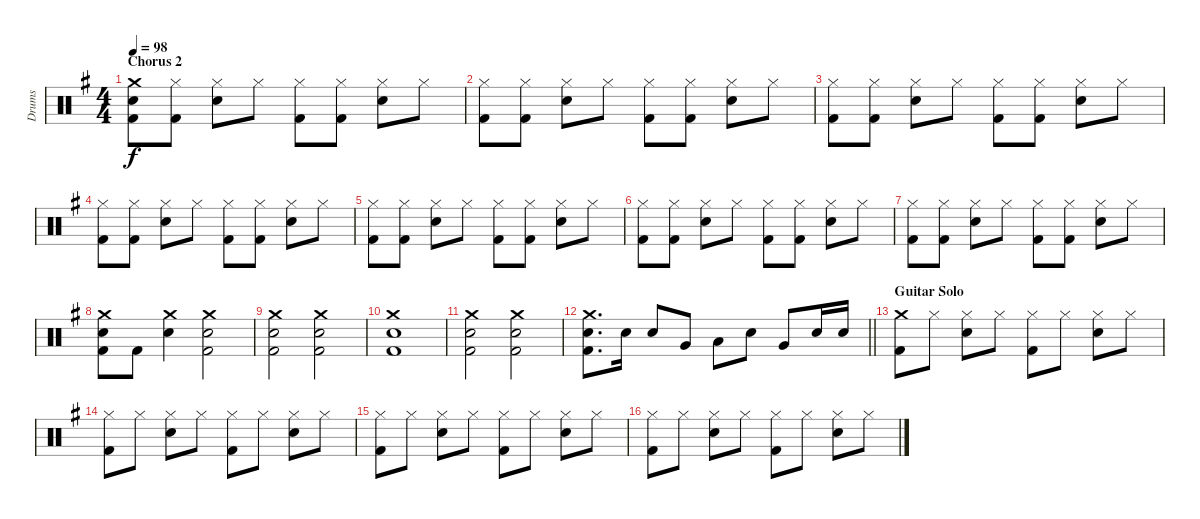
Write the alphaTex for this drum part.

\track ("Drums" "Drums") {instrument percussion}
\staff {score}
\articulation defaults
\ts (4 4)
\section ("" "Chorus 2")
\tempo 98
\clef neutral
\ks g
("Crash medium (hit)" "Electric Snare (hit)" "Kick (hit) 2").8{dy f} ("Hi-Hat (closed)" "Kick (hit) 2").8 ("Hi-Hat (closed)" "Electric Snare (hit)").8 "Hi-Hat (closed)".8 ("Hi-Hat (closed)" "Kick (hit) 2").8 ("Hi-Hat (closed)" "Kick (hit) 2").8 ("Hi-Hat (closed)" "Electric Snare (hit)").8 "Hi-Hat (closed)".8 |
("Hi-Hat (closed)" "Kick (hit) 2").8 ("Hi-Hat (closed)" "Kick (hit) 2").8 ("Hi-Hat (closed)" "Electric Snare (hit)").8 "Hi-Hat (closed)".8 ("Hi-Hat (closed)" "Kick (hit) 2").8 ("Hi-Hat (closed)" "Kick (hit) 2").8 ("Hi-Hat (closed)" "Electric Snare (hit)").8 "Hi-Hat (closed)".8 |
("Hi-Hat (closed)" "Kick (hit) 2").8 ("Hi-Hat (closed)" "Kick (hit) 2").8 ("Hi-Hat (closed)" "Electric Snare (hit)").8 "Hi-Hat (closed)".8 ("Hi-Hat (closed)" "Kick (hit) 2").8 ("Hi-Hat (closed)" "Kick (hit) 2").8 ("Hi-Hat (closed)" "Electric Snare (hit)").8 "Hi-Hat (closed)".8 |
("Hi-Hat (closed)" "Kick (hit) 2").8 ("Hi-Hat (closed)" "Kick (hit) 2").8 ("Hi-Hat (closed)" "Electric Snare (hit)").8 "Hi-Hat (closed)".8 ("Hi-Hat (closed)" "Kick (hit) 2").8 ("Hi-Hat (closed)" "Kick (hit) 2").8 ("Hi-Hat (closed)" "Electric Snare (hit)").8 "Hi-Hat (closed)".8 |
("Hi-Hat (closed)" "Kick (hit) 2").8 ("Hi-Hat (closed)" "Kick (hit) 2").8 ("Hi-Hat (closed)" "Electric Snare (hit)").8 "Hi-Hat (closed)".8 ("Hi-Hat (closed)" "Kick (hit) 2").8 ("Hi-Hat (closed)" "Kick (hit) 2").8 ("Hi-Hat (closed)" "Electric Snare (hit)").8 "Hi-Hat (closed)".8 |
("Hi-Hat (closed)" "Kick (hit) 2").8 ("Hi-Hat (closed)" "Kick (hit) 2").8 ("Hi-Hat (closed)" "Electric Snare (hit)").8 "Hi-Hat (closed)".8 ("Hi-Hat (closed)" "Kick (hit) 2").8 ("Hi-Hat (closed)" "Kick (hit) 2").8 ("Hi-Hat (closed)" "Electric Snare (hit)").8 "Hi-Hat (closed)".8 |
("Hi-Hat (closed)" "Kick (hit) 2").8 ("Hi-Hat (closed)" "Kick (hit) 2").8 ("Hi-Hat (closed)" "Electric Snare (hit)").8 "Hi-Hat (closed)".8 ("Hi-Hat (closed)" "Kick (hit) 2").8 ("Hi-Hat (closed)" "Kick (hit) 2").8 ("Hi-Hat (closed)" "Electric Snare (hit)").8 "Hi-Hat (closed)".8 |
("Crash medium (hit)" "Electric Snare (hit)" "Kick (hit) 2").8 "Kick (hit) 2".8 ("Crash medium (hit)" "Electric Snare (hit)").4 ("Crash medium (hit)" "Electric Snare (hit)" "Kick (hit) 2").2 |
("Crash medium (hit)" "Electric Snare (hit)" "Kick (hit) 2").2 ("Crash medium (hit)" "Electric Snare (hit)" "Kick (hit) 2").2 |
("Crash medium (hit)" "Electric Snare (hit)" "Kick (hit) 2").1 |
("Crash medium (hit)" "Electric Snare (hit)" "Kick (hit) 2").2 ("Crash medium (hit)" "Electric Snare (hit)" "Kick (hit) 2").2 |
\barLineRight lightlight
("Crash medium (hit)" "Electric Snare (hit)" "Kick (hit) 2").8{d} "Electric Snare (hit)".16 "Electric Snare (hit)".8 "Very Low Tom (hit)".8 "Low Floor Tom (hit)".8 "Electric Snare (hit)".8 "Very Low Tom (hit)".8 "Electric Snare (hit)".16 "Electric Snare (hit)".16 |
\section ("" "Guitar Solo")
("Crash medium (hit)" "Kick (hit) 2").8 "Hi-Hat (closed)".8 ("Hi-Hat (closed)" "Electric Snare (hit)").8 "Hi-Hat (closed)".8 ("Hi-Hat (closed)" "Kick (hit) 2").8 "Hi-Hat (closed)".8 ("Hi-Hat (closed)" "Electric Snare (hit)").8 "Hi-Hat (closed)".8 |
("Hi-Hat (closed)" "Kick (hit) 2").8 "Hi-Hat (closed)".8 ("Hi-Hat (closed)" "Electric Snare (hit)").8 "Hi-Hat (closed)".8 ("Hi-Hat (closed)" "Kick (hit) 2").8 "Hi-Hat (closed)".8 ("Hi-Hat (closed)" "Electric Snare (hit)").8 "Hi-Hat (closed)".8 |
("Hi-Hat (closed)" "Kick (hit) 2").8 "Hi-Hat (closed)".8 ("Hi-Hat (closed)" "Electric Snare (hit)").8 "Hi-Hat (closed)".8 ("Hi-Hat (closed)" "Kick (hit) 2").8 "Hi-Hat (closed)".8 ("Hi-Hat (closed)" "Electric Snare (hit)").8 "Hi-Hat (closed)".8 |
("Hi-Hat (closed)" "Kick (hit) 2").8 "Hi-Hat (closed)".8 ("Hi-Hat (closed)" "Electric Snare (hit)").8 "Hi-Hat (closed)".8 ("Hi-Hat (closed)" "Kick (hit) 2").8 "Hi-Hat (closed)".8 ("Hi-Hat (closed)" "Electric Snare (hit)").8 "Hi-Hat (closed)".8
